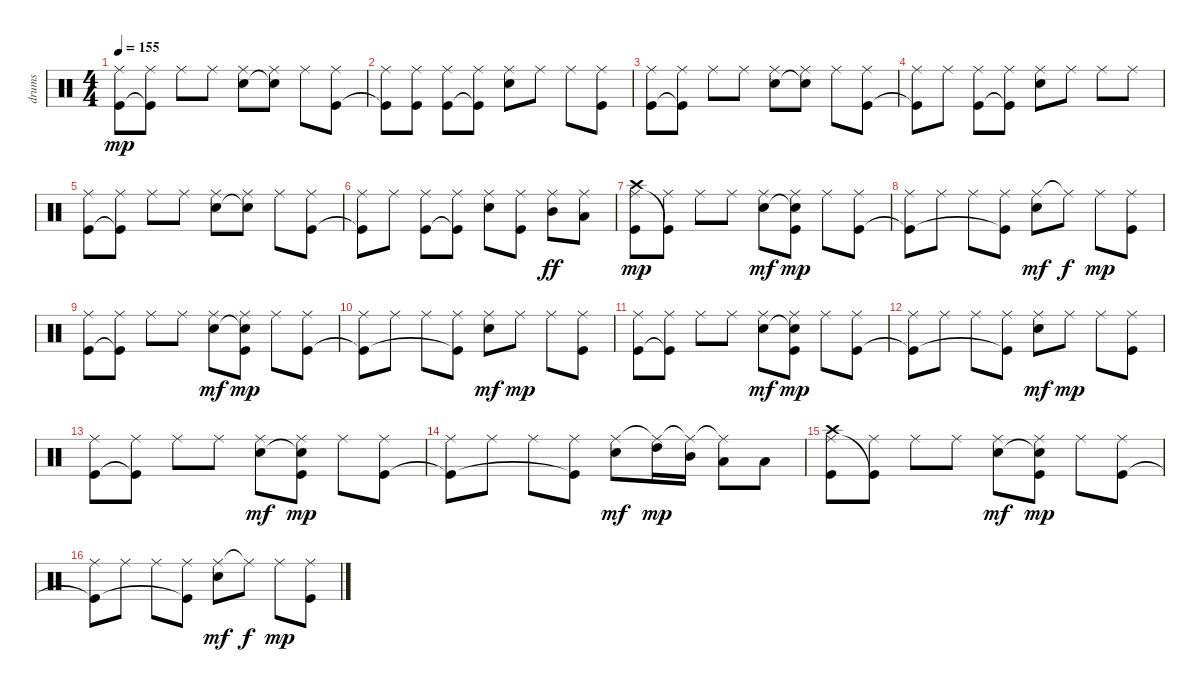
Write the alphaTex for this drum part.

\track ("drums" "drums") {instrument percussion}
\staff {score}
\articulation defaults
\ts (4 4)
\tempo 155
\clef neutral
\ks c
("Ride (middle)" "Kick (hit)").8{dy mp} ("Ride (middle)" "Kick (hit)"{t}).8 "Ride (middle)".8 "Ride (middle)".8 ("Ride (middle)" "Electric Snare (hit)").8 ("Ride (middle)" "Electric Snare (hit)"{t}).8 "Ride (middle)".8 ("Ride (middle)" "Kick (hit)").8 |
("Ride (middle)" "Kick (hit)"{t}).8 ("Ride (middle)" "Kick (hit)").8 ("Ride (middle)" "Kick (hit)").8 ("Ride (middle)" "Kick (hit)"{t}).8 ("Ride (middle)" "Electric Snare (hit)").8 "Ride (middle)".8 "Ride (middle)".8 ("Ride (middle)" "Kick (hit)").8 |
("Ride (middle)" "Kick (hit)").8 ("Ride (middle)" "Kick (hit)"{t}).8 "Ride (middle)".8 "Ride (middle)".8 ("Ride (middle)" "Electric Snare (hit)").8 ("Ride (middle)" "Electric Snare (hit)"{t}).8 "Ride (middle)".8 ("Ride (middle)" "Kick (hit)").8 |
("Ride (middle)" "Kick (hit)"{t}).8 "Ride (middle)".8 ("Ride (middle)" "Kick (hit)").8 ("Ride (middle)" "Kick (hit)"{t}).8 ("Ride (middle)" "Electric Snare (hit)").8 "Ride (middle)".8 "Ride (middle)".8 "Ride (middle)".8 |
("Ride (middle)" "Kick (hit)").8 ("Ride (middle)" "Kick (hit)"{t}).8 "Ride (middle)".8 "Ride (middle)".8 ("Ride (middle)" "Electric Snare (hit)").8 ("Ride (middle)" "Electric Snare (hit)"{t}).8 "Ride (middle)".8 ("Ride (middle)" "Kick (hit)").8 |
("Ride (middle)" "Kick (hit)"{t}).8 "Ride (middle)".8 ("Ride (middle)" "Kick (hit)").8 ("Ride (middle)" "Kick (hit)"{t}).8 ("Ride (middle)" "Electric Snare (hit)").8 ("Ride (middle)" "Kick (hit)").8 ("Ride (middle)" "Mid Tom (hit)").8{dy ff} ("Ride (middle)" "Low Tom (hit)").8 |
("Crash high (hit)" "Ride (middle)" "Kick (hit)").8{dy mp} ("Ride (middle)" "Kick (hit)"{t}).8 "Ride (middle)".8 "Ride (middle)".8 ("Ride (middle)" "Electric Snare (hit)").8{dy mf} ("Ride (middle)" "Electric Snare (hit)"{t} "Kick (hit)").8{dy mp} "Ride (middle)".8 ("Ride (middle)" "Kick (hit)").8 |
("Ride (middle)" "Kick (hit)"{t}).8 "Ride (middle)".8 "Ride (middle)".8 ("Ride (middle)" "Kick (hit)"{t}).8 ("Ride (middle)" "Electric Snare (hit)").8{dy mf} "Ride (middle)"{t}.8{dy f} "Ride (middle)".8{dy mp} ("Ride (middle)" "Kick (hit)").8 |
("Ride (middle)" "Kick (hit)").8 ("Ride (middle)" "Kick (hit)"{t}).8 "Ride (middle)".8 "Ride (middle)".8 ("Ride (middle)" "Electric Snare (hit)").8{dy mf} ("Ride (middle)" "Electric Snare (hit)"{t} "Kick (hit)").8{dy mp} "Ride (middle)".8 ("Ride (middle)" "Kick (hit)").8 |
("Ride (middle)" "Kick (hit)"{t}).8 "Ride (middle)".8 "Ride (middle)".8 ("Ride (middle)" "Kick (hit)"{t}).8 ("Ride (middle)" "Electric Snare (hit)").8{dy mf} "Ride (middle)".8{dy mp} "Ride (middle)".8 ("Ride (middle)" "Kick (hit)").8 |
("Ride (middle)" "Kick (hit)").8 ("Ride (middle)" "Kick (hit)"{t}).8 "Ride (middle)".8 "Ride (middle)".8 ("Ride (middle)" "Electric Snare (hit)").8{dy mf} ("Ride (middle)" "Electric Snare (hit)"{t} "Kick (hit)").8{dy mp} "Ride (middle)".8 ("Ride (middle)" "Kick (hit)").8 |
("Ride (middle)" "Kick (hit)"{t}).8 "Ride (middle)".8 "Ride (middle)".8 ("Ride (middle)" "Kick (hit)"{t}).8 ("Ride (middle)" "Electric Snare (hit)").8{dy mf} "Ride (middle)".8{dy mp} "Ride (middle)".8 ("Ride (middle)" "Kick (hit)").8 |
("Ride (middle)" "Kick (hit)").8 ("Ride (middle)" "Kick (hit)"{t}).8 "Ride (middle)".8 "Ride (middle)".8 ("Ride (middle)" "Electric Snare (hit)").8{dy mf} ("Ride (middle)" "Electric Snare (hit)"{t} "Kick (hit)").8{dy mp} "Ride (middle)".8 ("Ride (middle)" "Kick (hit)").8 |
("Ride (middle)" "Kick (hit)"{t}).8 "Ride (middle)".8 "Ride (middle)".8 ("Ride (middle)" "Kick (hit)"{t}).8 ("Ride (middle)" "Electric Snare (hit)").8{dy mf} ("Ride (middle)"{t} "High Tom (hit)").16{dy mp} ("Ride (middle)"{t} "Mid Tom (hit)").16 ("Ride (middle)"{t} "Low Tom (hit)").8 "Low Floor Tom (hit)".8 |
("Crash high (hit)" "Ride (middle)" "Kick (hit)").8 ("Ride (middle)" "Kick (hit)"{t}).8 "Ride (middle)".8 "Ride (middle)".8 ("Ride (middle)" "Electric Snare (hit)").8{dy mf} ("Ride (middle)" "Electric Snare (hit)"{t} "Kick (hit)").8{dy mp} "Ride (middle)".8 ("Ride (middle)" "Kick (hit)").8 |
("Ride (middle)" "Kick (hit)"{t}).8 "Ride (middle)".8 "Ride (middle)".8 ("Ride (middle)" "Kick (hit)"{t}).8 ("Ride (middle)" "Electric Snare (hit)").8{dy mf} "Ride (middle)"{t}.8{dy f} "Ride (middle)".8{dy mp} ("Ride (middle)" "Kick (hit)").8
